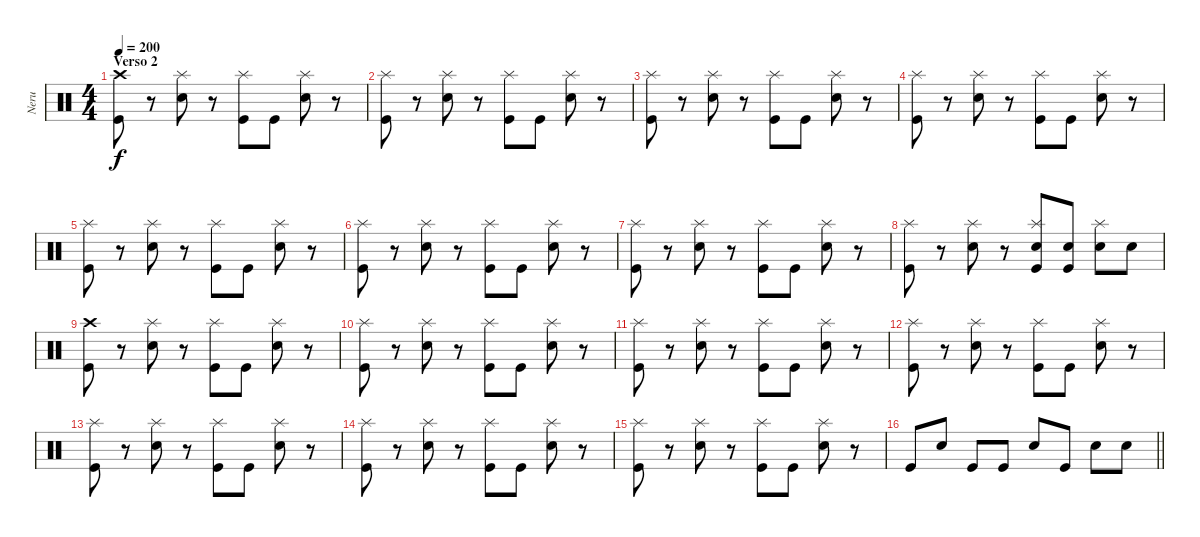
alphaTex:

\track ("Neru" "Neru") {instrument percussion}
\staff {score}
\articulation defaults
\ts (4 4)
\section ("" "Verso 2")
\tempo 200
\clef neutral
\ks c
("Crash high (hit)" "Kick (hit)").8{dy f} r.8 ("Splash (hit)" "Electric Snare (hit)").8 r.8 ("Splash (hit)" "Kick (hit)").8 "Kick (hit)".8 ("Splash (hit)" "Electric Snare (hit)").8 r.8 |
("Splash (hit)" "Kick (hit)").8 r.8 ("Splash (hit)" "Electric Snare (hit)").8 r.8 ("Splash (hit)" "Kick (hit)").8 "Kick (hit)".8 ("Splash (hit)" "Electric Snare (hit)").8 r.8 |
("Splash (hit)" "Kick (hit)").8 r.8 ("Splash (hit)" "Electric Snare (hit)").8 r.8 ("Splash (hit)" "Kick (hit)").8 "Kick (hit)".8 ("Splash (hit)" "Electric Snare (hit)").8 r.8 |
("Splash (hit)" "Kick (hit)").8 r.8 ("Splash (hit)" "Electric Snare (hit)").8 r.8 ("Splash (hit)" "Kick (hit)").8 "Kick (hit)".8 ("Splash (hit)" "Electric Snare (hit)").8 r.8 |
("Splash (hit)" "Kick (hit)").8 r.8 ("Splash (hit)" "Electric Snare (hit)").8 r.8 ("Splash (hit)" "Kick (hit)").8 "Kick (hit)".8 ("Splash (hit)" "Electric Snare (hit)").8 r.8 |
("Splash (hit)" "Kick (hit)").8 r.8 ("Splash (hit)" "Electric Snare (hit)").8 r.8 ("Splash (hit)" "Kick (hit)").8 "Kick (hit)".8 ("Splash (hit)" "Electric Snare (hit)").8 r.8 |
("Splash (hit)" "Kick (hit)").8 r.8 ("Splash (hit)" "Electric Snare (hit)").8 r.8 ("Splash (hit)" "Kick (hit)").8 "Kick (hit)".8 ("Splash (hit)" "Electric Snare (hit)").8 r.8 |
("Splash (hit)" "Kick (hit)").8 r.8 ("Splash (hit)" "Electric Snare (hit)").8 r.8 ("Splash (hit)" "Electric Snare (hit)" "Kick (hit)").8 ("Electric Snare (hit)" "Kick (hit)").8 ("Splash (hit)" "Electric Snare (hit)").8 "Electric Snare (hit)".8 |
("Crash high (hit)" "Kick (hit)").8 r.8 ("Splash (hit)" "Electric Snare (hit)").8 r.8 ("Splash (hit)" "Kick (hit)").8 "Kick (hit)".8 ("Splash (hit)" "Electric Snare (hit)").8 r.8 |
("Splash (hit)" "Kick (hit)").8 r.8 ("Splash (hit)" "Electric Snare (hit)").8 r.8 ("Splash (hit)" "Kick (hit)").8 "Kick (hit)".8 ("Splash (hit)" "Electric Snare (hit)").8 r.8 |
("Splash (hit)" "Kick (hit)").8 r.8 ("Splash (hit)" "Electric Snare (hit)").8 r.8 ("Splash (hit)" "Kick (hit)").8 "Kick (hit)".8 ("Splash (hit)" "Electric Snare (hit)").8 r.8 |
("Splash (hit)" "Kick (hit)").8 r.8 ("Splash (hit)" "Electric Snare (hit)").8 r.8 ("Splash (hit)" "Kick (hit)").8 "Kick (hit)".8 ("Splash (hit)" "Electric Snare (hit)").8 r.8 |
("Splash (hit)" "Kick (hit)").8 r.8 ("Splash (hit)" "Electric Snare (hit)").8 r.8 ("Splash (hit)" "Kick (hit)").8 "Kick (hit)".8 ("Splash (hit)" "Electric Snare (hit)").8 r.8 |
("Splash (hit)" "Kick (hit)").8 r.8 ("Splash (hit)" "Electric Snare (hit)").8 r.8 ("Splash (hit)" "Kick (hit)").8 "Kick (hit)".8 ("Splash (hit)" "Electric Snare (hit)").8 r.8 |
("Splash (hit)" "Kick (hit)").8 r.8 ("Splash (hit)" "Electric Snare (hit)").8 r.8 ("Splash (hit)" "Kick (hit)").8 "Kick (hit)".8 ("Splash (hit)" "Electric Snare (hit)").8 r.8 |
\barLineRight lightlight "Kick (hit)".8 "Electric Snare (hit)".8 "Kick (hit)".8 "Kick (hit)".8 "Electric Snare (hit)".8 "Kick (hit)".8 "Electric Snare (hit)".8 "Electric Snare (hit)".8
